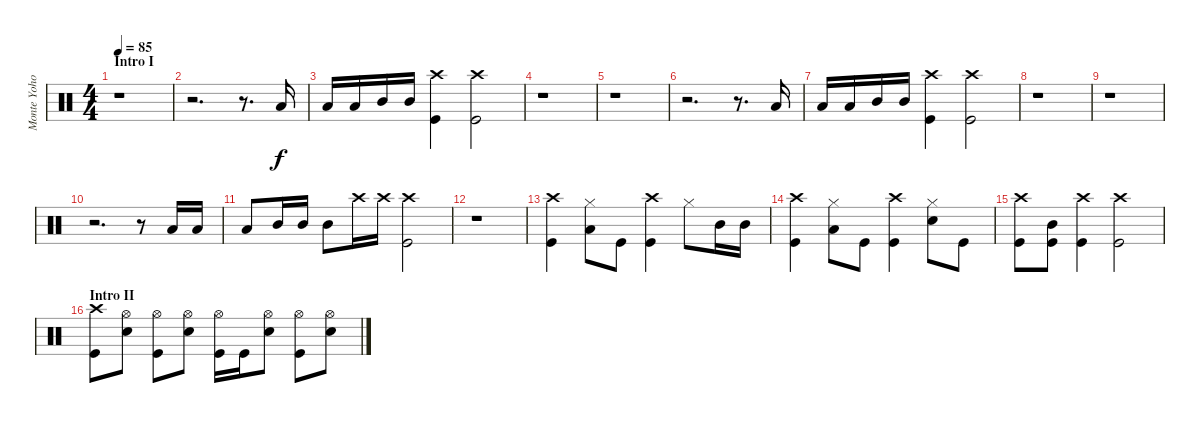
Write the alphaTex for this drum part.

\track ("Monte Yoho - Drums" "Monte Yoho") {instrument percussion}
\staff {score}
\articulation defaults
\ts (4 4)
\section ("" "Intro I")
\tempo 85
\clef neutral
\ks c
r.1{dy f} |
r.2{d} r.8{d} "Low Tom (hit)".16 |
"Low Tom (hit)".16 "Low Tom (hit)".16 "Mid Tom (hit)".16 "Mid Tom (hit)".16 ("Crash high (hit)" "Kick (hit)").4 ("Crash high (hit)" "Kick (hit)").2 |
r.1 |
r.1 |
r.2{d} r.8{d} "Low Tom (hit)".16 |
"Low Tom (hit)".16 "Low Tom (hit)".16 "Mid Tom (hit)".16 "Mid Tom (hit)".16 ("Crash high (hit)" "Kick (hit)").4 ("Crash high (hit)" "Kick (hit)").2 |
r.1 |
r.1 |
r.2{d} r.8 "Low Tom (hit)".16 "Low Tom (hit)".16 |
"Low Tom (hit)".8 "Mid Tom (hit)".16 "Mid Tom (hit)".16 "Mid Tom (hit)".8 "Crash high (hit)".16 "Crash high (hit)".16 ("Crash high (hit)" "Kick (hit)").2 |
r.1 |
("Crash high (hit)" "Kick (hit)").4 ("Hi-Hat (closed)" "Low Tom (hit)").8 "Kick (hit)".8 ("Crash high (hit)" "Kick (hit)").4 "Hi-Hat (closed)".8 "Mid Tom (hit)".16 "Mid Tom (hit)".16 |
("Crash high (hit)" "Kick (hit)").4 ("Hi-Hat (closed)" "Low Tom (hit)").8 "Kick (hit)".8 ("Crash high (hit)" "Kick (hit)").4 ("Hi-Hat (closed)" "Snare (hit) 2").8 "Kick (hit)".8 |
("Crash high (hit)" "Kick (hit)").8 ("Mid Tom (hit)" "Kick (hit)").8 ("Crash high (hit)" "Kick (hit)").4 ("Crash high (hit)" "Kick (hit)").2 |
\section ("" "Intro II")
("Crash high (hit)" "Kick (hit)").8 ("Hi-Hat (open)" "Snare (hit) 2").8 ("Hi-Hat (open)" "Kick (hit)").8 ("Hi-Hat (open)" "Snare (hit) 2").8 ("Hi-Hat (open)" "Kick (hit)").16 "Kick (hit)".16 ("Hi-Hat (open)" "Snare (hit) 2").8 ("Hi-Hat (open)" "Kick (hit)").8 ("Hi-Hat (open)" "Snare (hit) 2").8
